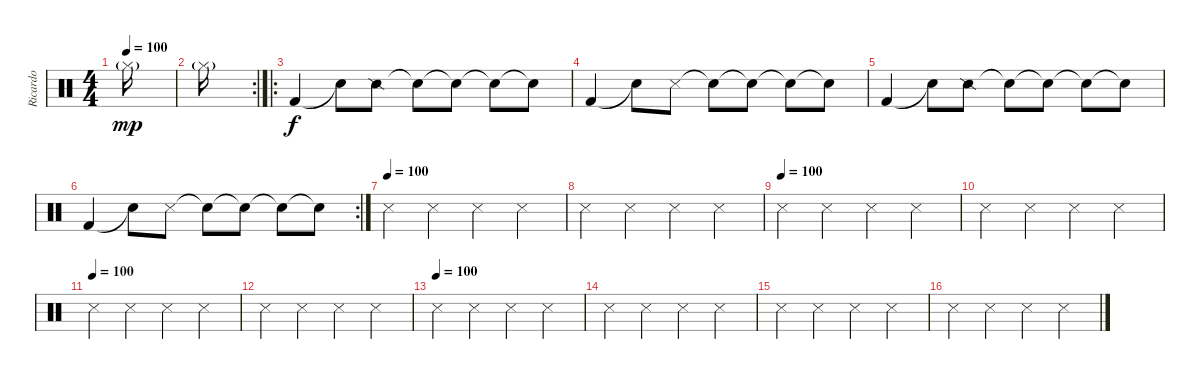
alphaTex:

\track ("Ricardo" "Ricardo") {instrument percussion}
\staff {score}
\articulation defaults
\ts (4 4)
\tempo 100
\clef neutral
\ks c "Hi-Hat (closed)"{g}.16{dy mp}
|
\rc 2 "Hi-Hat (closed)"{g}.16
|
\ro "Kick (hit) 2".4{dy f} "Snare (hit)"{t}.8 "Snare (side stick) 2".8 "Snare (hit)"{t}.8 "Snare (hit)"{t}.8 "Snare (hit)"{t}.8 "Snare (hit)"{t}.8
|
"Kick (hit) 2".4 "Snare (hit)"{t}.8 "Metronome (hit)".8 "Snare (hit)"{t}.8 "Snare (hit)"{t}.8 "Snare (hit)"{t}.8 "Snare (hit)"{t}.8 |
"Kick (hit) 2".4 "Snare (hit)"{t}.8 "Snare (side stick) 2".8 "Snare (hit)"{t}.8 "Snare (hit)"{t}.8 "Snare (hit)"{t}.8 "Snare (hit)"{t}.8 |
\rc 2 "Kick (hit) 2".4 "Snare (hit)"{t}.8 "Metronome (hit)".8 "Snare (hit)"{t}.8 "Snare (hit)"{t}.8 "Snare (hit)"{t}.8 "Snare (hit)"{t}.8
|
\tempo (100)
"Metronome (hit)".4 "Metronome (hit)".4 "Metronome (hit)".4 "Metronome (hit)".4 |
"Metronome (hit)".4 "Metronome (hit)".4 "Metronome (hit)".4 "Metronome (hit)".4 |
\tempo (100)
"Metronome (hit)".4 "Metronome (hit)".4 "Metronome (hit)".4 "Metronome (hit)".4 |
"Metronome (hit)".4 "Metronome (hit)".4 "Metronome (hit)".4 "Metronome (hit)".4 |
\tempo (100)
"Metronome (hit)".4 "Metronome (hit)".4 "Metronome (hit)".4 "Metronome (hit)".4 |
"Metronome (hit)".4 "Metronome (hit)".4 "Metronome (hit)".4 "Metronome (hit)".4 |
\tempo (100)
"Metronome (hit)".4 "Metronome (hit)".4 "Metronome (hit)".4 "Metronome (hit)".4 |
"Metronome (hit)".4 "Metronome (hit)".4 "Metronome (hit)".4 "Metronome (hit)".4 |
"Metronome (hit)".4 "Metronome (hit)".4 "Metronome (hit)".4 "Metronome (hit)".4 |
"Metronome (hit)".4 "Metronome (hit)".4 "Metronome (hit)".4 "Metronome (hit)".4
